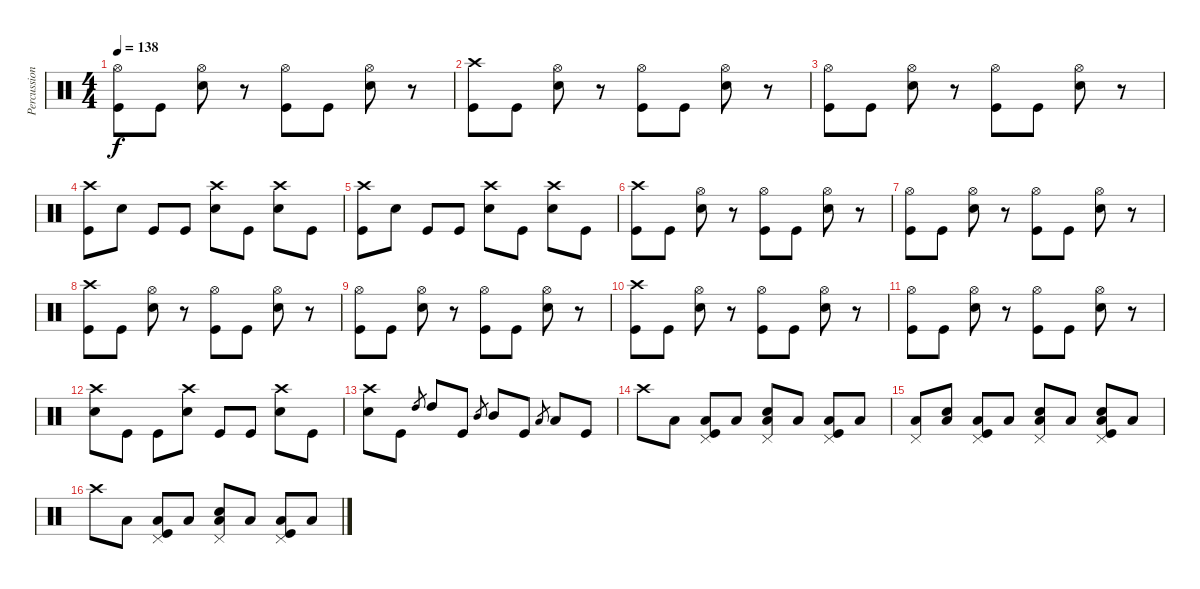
\track ("Percussion" "Percussion") {instrument percussion}
\staff {score}
\articulation defaults
\ts (4 4)
\tempo 138
\clef neutral
\ks c
("Hi-Hat (open)" "Kick (hit)").8{dy f} "Kick (hit)".8 ("Snare (hit) 2" "Hi-Hat (open)").8 r.8 ("Hi-Hat (open)" "Kick (hit)").8 "Kick (hit)".8 ("Snare (hit) 2" "Hi-Hat (open)").8 r.8 |
("Crash high (hit)" "Kick (hit)").8 "Kick (hit)".8 ("Snare (hit) 2" "Hi-Hat (open)").8 r.8 ("Hi-Hat (open)" "Kick (hit)").8 "Kick (hit)".8 ("Snare (hit) 2" "Hi-Hat (open)").8 r.8 |
("Hi-Hat (open)" "Kick (hit)").8 "Kick (hit)".8 ("Snare (hit) 2" "Hi-Hat (open)").8 r.8 ("Hi-Hat (open)" "Kick (hit)").8 "Kick (hit)".8 ("Snare (hit) 2" "Hi-Hat (open)").8 r.8 |
("Crash high (hit)" "Kick (hit)").8 "Snare (hit) 2".8 "Kick (hit)".8 "Kick (hit)".8 ("Snare (hit) 2" "Crash high (hit)").8 "Kick (hit)".8 ("Snare (hit) 2" "Crash high (hit)").8 "Kick (hit)".8 |
("Crash high (hit)" "Kick (hit)").8 "Snare (hit) 2".8 "Kick (hit)".8 "Kick (hit)".8 ("Snare (hit) 2" "Crash high (hit)").8 "Kick (hit)".8 ("Snare (hit) 2" "Crash high (hit)").8 "Kick (hit)".8 |
("Crash high (hit)" "Kick (hit)").8 "Kick (hit)".8 ("Snare (hit) 2" "Hi-Hat (open)").8 r.8 ("Hi-Hat (open)" "Kick (hit)").8 "Kick (hit)".8 ("Snare (hit) 2" "Hi-Hat (open)").8 r.8 |
("Hi-Hat (open)" "Kick (hit)").8 "Kick (hit)".8 ("Snare (hit) 2" "Hi-Hat (open)").8 r.8 ("Hi-Hat (open)" "Kick (hit)").8 "Kick (hit)".8 ("Snare (hit) 2" "Hi-Hat (open)").8 r.8 |
("Crash high (hit)" "Kick (hit)").8 "Kick (hit)".8 ("Snare (hit) 2" "Hi-Hat (open)").8 r.8 ("Hi-Hat (open)" "Kick (hit)").8 "Kick (hit)".8 ("Snare (hit) 2" "Hi-Hat (open)").8 r.8 |
("Hi-Hat (open)" "Kick (hit)").8 "Kick (hit)".8 ("Snare (hit) 2" "Hi-Hat (open)").8 r.8 ("Hi-Hat (open)" "Kick (hit)").8 "Kick (hit)".8 ("Snare (hit) 2" "Hi-Hat (open)").8 r.8 |
("Crash high (hit)" "Kick (hit)").8 "Kick (hit)".8 ("Snare (hit) 2" "Hi-Hat (open)").8 r.8 ("Hi-Hat (open)" "Kick (hit)").8 "Kick (hit)".8 ("Snare (hit) 2" "Hi-Hat (open)").8 r.8 |
("Hi-Hat (open)" "Kick (hit)").8 "Kick (hit)".8 ("Snare (hit) 2" "Hi-Hat (open)").8 r.8 ("Hi-Hat (open)" "Kick (hit)").8 "Kick (hit)".8 ("Snare (hit) 2" "Hi-Hat (open)").8 r.8 |
("Snare (hit) 2" "Crash high (hit)").8 "Kick (hit)".8 "Kick (hit)".8 ("Snare (hit) 2" "Crash high (hit)").8 "Kick (hit)".8 "Kick (hit)".8 ("Snare (hit) 2" "Crash high (hit)").8 "Kick (hit)".8 |
("Snare (hit) 2" "Crash high (hit)").8 "Kick (hit)".8 "High Tom (hit)".8{gr} "High Tom (hit)".8 "Kick (hit)".8 "Mid Tom (hit)".8{gr} "Mid Tom (hit)".8 "Kick (hit)".8 "Low Tom (hit)".8{gr} "Low Tom (hit)".8 "Kick (hit)".8 |
"Crash high (hit)".8 "Low Tom (hit)".8 ("Low Tom (hit)" "Pedal Hi-Hat (hit)" "Kick (hit)").8 "Low Tom (hit)".8 ("Snare (hit) 2" "Low Tom (hit)" "Pedal Hi-Hat (hit)").8 "Low Tom (hit)".8 ("Low Tom (hit)" "Pedal Hi-Hat (hit)" "Kick (hit)").8 "Low Tom (hit)".8 |
("Low Tom (hit)" "Pedal Hi-Hat (hit)").8 ("Snare (hit) 2" "Low Tom (hit)").8 ("Low Tom (hit)" "Pedal Hi-Hat (hit)" "Kick (hit)").8 "Low Tom (hit)".8 ("Snare (hit) 2" "Low Tom (hit)" "Pedal Hi-Hat (hit)").8 "Low Tom (hit)".8 ("Snare (hit) 2" "Low Tom (hit)" "Pedal Hi-Hat (hit)" "Kick (hit)").8 "Low Tom (hit)".8 |
"Crash high (hit)".8 "Low Tom (hit)".8 ("Low Tom (hit)" "Pedal Hi-Hat (hit)" "Kick (hit)").8 "Low Tom (hit)".8 ("Snare (hit) 2" "Low Tom (hit)" "Pedal Hi-Hat (hit)").8 "Low Tom (hit)".8 ("Low Tom (hit)" "Pedal Hi-Hat (hit)" "Kick (hit)").8 "Low Tom (hit)".8
